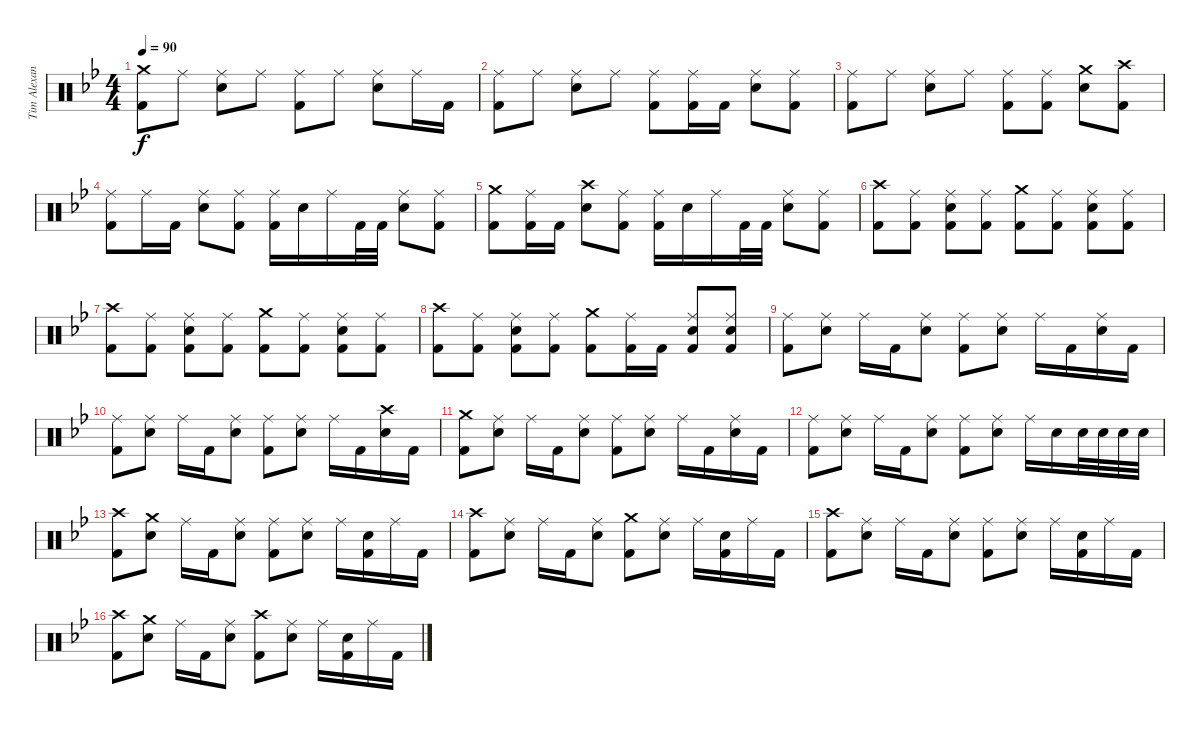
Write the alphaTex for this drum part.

\track ("Tim Alexander - Drums" "Tim Alexan") {instrument percussion}
\staff {score}
\articulation defaults
\ts (4 4)
\tempo 90
\clef neutral
\ks bb
("Crash medium (hit)" "Kick (hit) 2").8{dy f} "Ride (middle)".8 ("Ride (middle)" "Snare (hit) 2").8 "Ride (middle)".8 ("Ride (middle)" "Kick (hit) 2").8 "Ride (middle)".8 ("Ride (middle)" "Snare (hit) 2").8 "Ride (middle)".16 "Kick (hit) 2".16 |
("Ride (middle)" "Kick (hit) 2").8 "Ride (middle)".8 ("Ride (middle)" "Snare (hit) 2").8 "Ride (middle)".8 ("Ride (middle)" "Kick (hit) 2").8 ("Ride (middle)" "Kick (hit) 2").16 "Kick (hit) 2".16 ("Ride (middle)" "Snare (hit) 2").8 ("Ride (middle)" "Kick (hit) 2").8 |
("Ride (middle)" "Kick (hit) 2").8 "Ride (middle)".8 ("Ride (middle)" "Snare (hit) 2").8 "Ride (middle)".8 ("Ride (middle)" "Kick (hit) 2").8 ("Ride (middle)" "Kick (hit) 2").8 ("Crash medium (hit)" "Snare (hit) 2").8 ("Crash high (hit)" "Kick (hit) 2").8 |
("Ride (middle)" "Kick (hit) 2").8 "Ride (middle)".16 "Kick (hit) 2".16 ("Ride (middle)" "Snare (hit) 2").8 ("Ride (middle)" "Kick (hit) 2").8 ("Ride (middle)" "Kick (hit) 2").16 "Snare (hit) 2".16 "Ride (middle)".16 "Kick (hit) 2".32 "Kick (hit) 2".32 ("Ride (middle)" "Snare (hit) 2").8 ("Ride (middle)" "Kick (hit) 2").8 |
("Crash medium (hit)" "Kick (hit) 2").8 ("Ride (middle)" "Kick (hit) 2").16 "Kick (hit) 2".16 ("Crash high (hit)" "Snare (hit) 2").8 ("Ride (middle)" "Kick (hit) 2").8 ("Ride (middle)" "Kick (hit) 2").16 "Snare (hit) 2".16 "Ride (middle)".16 "Kick (hit) 2".32 "Kick (hit) 2".32 ("Ride (middle)" "Snare (hit) 2").8 ("Ride (middle)" "Kick (hit) 2").8 |
("Crash high (hit)" "Kick (hit) 2").8 ("Ride (middle)" "Kick (hit) 2").8 ("Ride (middle)" "Snare (hit) 2" "Kick (hit) 2").8 ("Ride (middle)" "Kick (hit) 2").8 ("Crash medium (hit)" "Kick (hit) 2").8 ("Ride (middle)" "Kick (hit) 2").8 ("Ride (middle)" "Snare (hit) 2" "Kick (hit) 2").8 ("Ride (middle)" "Kick (hit) 2").8 |
("Crash high (hit)" "Kick (hit) 2").8 ("Ride (middle)" "Kick (hit) 2").8 ("Ride (middle)" "Snare (hit) 2" "Kick (hit) 2").8 ("Ride (middle)" "Kick (hit) 2").8 ("Crash medium (hit)" "Kick (hit) 2").8 ("Ride (middle)" "Kick (hit) 2").8 ("Ride (middle)" "Snare (hit) 2" "Kick (hit) 2").8 ("Ride (middle)" "Kick (hit) 2").8 |
("Crash high (hit)" "Kick (hit) 2").8 ("Ride (middle)" "Kick (hit) 2").8 ("Ride (middle)" "Snare (hit) 2" "Kick (hit) 2").8 ("Ride (middle)" "Kick (hit) 2").8 ("Crash medium (hit)" "Kick (hit) 2").8 ("Ride (middle)" "Kick (hit) 2").16 "Kick (hit) 2".16 ("Ride (middle)" "Snare (hit) 2" "Kick (hit) 2").8 ("Ride (middle)" "Snare (hit) 2" "Kick (hit) 2").8 |
("Ride (middle)" "Kick (hit) 2").8 ("Ride (middle)" "Snare (hit) 2").8 "Ride (middle)".16 "Kick (hit) 2".16 ("Ride (middle)" "Snare (hit) 2").8 ("Ride (middle)" "Kick (hit) 2").8 ("Ride (middle)" "Snare (hit) 2").8 "Ride (middle)".16 "Kick (hit) 2".16 ("Ride (middle)" "Snare (hit) 2").16 "Kick (hit) 2".16 |
("Ride (middle)" "Kick (hit) 2").8 ("Ride (middle)" "Snare (hit) 2").8 "Ride (middle)".16 "Kick (hit) 2".16 ("Ride (middle)" "Snare (hit) 2").8 ("Ride (middle)" "Kick (hit) 2").8 ("Ride (middle)" "Snare (hit) 2").8 "Ride (middle)".16 "Kick (hit) 2".16 ("Crash high (hit)" "Snare (hit) 2").16 "Kick (hit) 2".16 |
("Crash medium (hit)" "Kick (hit) 2").8 ("Ride (middle)" "Snare (hit) 2").8 "Ride (middle)".16 "Kick (hit) 2".16 ("Ride (middle)" "Snare (hit) 2").8 ("Ride (middle)" "Kick (hit) 2").8 ("Ride (middle)" "Snare (hit) 2").8 "Ride (middle)".16 "Kick (hit) 2".16 ("Ride (middle)" "Snare (hit) 2").16 "Kick (hit) 2".16 |
("Ride (middle)" "Kick (hit) 2").8 ("Ride (middle)" "Snare (hit) 2").8 "Ride (middle)".16 "Kick (hit) 2".16 ("Ride (middle)" "Snare (hit) 2").8 ("Ride (middle)" "Kick (hit) 2").8 ("Ride (middle)" "Snare (hit) 2").8 "Ride (middle)".16 "Snare (hit) 2".16 "Snare (hit) 2".32 "Snare (hit) 2".32 "Snare (hit) 2".32 "Snare (hit) 2".32 |
("Crash high (hit)" "Kick (hit) 2").8 ("Crash medium (hit)" "Snare (hit) 2").8 "Ride (middle)".16 "Kick (hit) 2".16 ("Ride (middle)" "Snare (hit) 2").8 ("Ride (middle)" "Kick (hit) 2").8 ("Ride (middle)" "Snare (hit) 2").8 "Ride (middle)".16 ("Snare (hit) 2" "Kick (hit) 2").16 "Ride (middle)".16 "Kick (hit) 2".16 |
("Crash high (hit)" "Kick (hit) 2").8 ("Ride (middle)" "Snare (hit) 2").8 "Ride (middle)".16 "Kick (hit) 2".16 ("Ride (middle)" "Snare (hit) 2").8 ("Crash medium (hit)" "Kick (hit) 2").8 ("Ride (middle)" "Snare (hit) 2").8 "Ride (middle)".16 ("Snare (hit) 2" "Kick (hit) 2").16 "Ride (middle)".16 "Kick (hit) 2".16 |
("Crash high (hit)" "Kick (hit) 2").8 ("Ride (middle)" "Snare (hit) 2").8 "Ride (middle)".16 "Kick (hit) 2".16 ("Ride (middle)" "Snare (hit) 2").8 ("Ride (middle)" "Kick (hit) 2").8 ("Ride (middle)" "Snare (hit) 2").8 "Ride (middle)".16 ("Snare (hit) 2" "Kick (hit) 2").16 "Ride (middle)".16 "Kick (hit) 2".16 |
("Crash high (hit)" "Kick (hit) 2").8 ("Crash medium (hit)" "Snare (hit) 2").8 "Ride (middle)".16 "Kick (hit) 2".16 ("Ride (middle)" "Snare (hit) 2").8 ("Crash high (hit)" "Kick (hit) 2").8 ("Ride (middle)" "Snare (hit) 2").8 "Ride (middle)".16 ("Snare (hit) 2" "Kick (hit) 2").16 "Ride (middle)".16 "Kick (hit) 2".16
